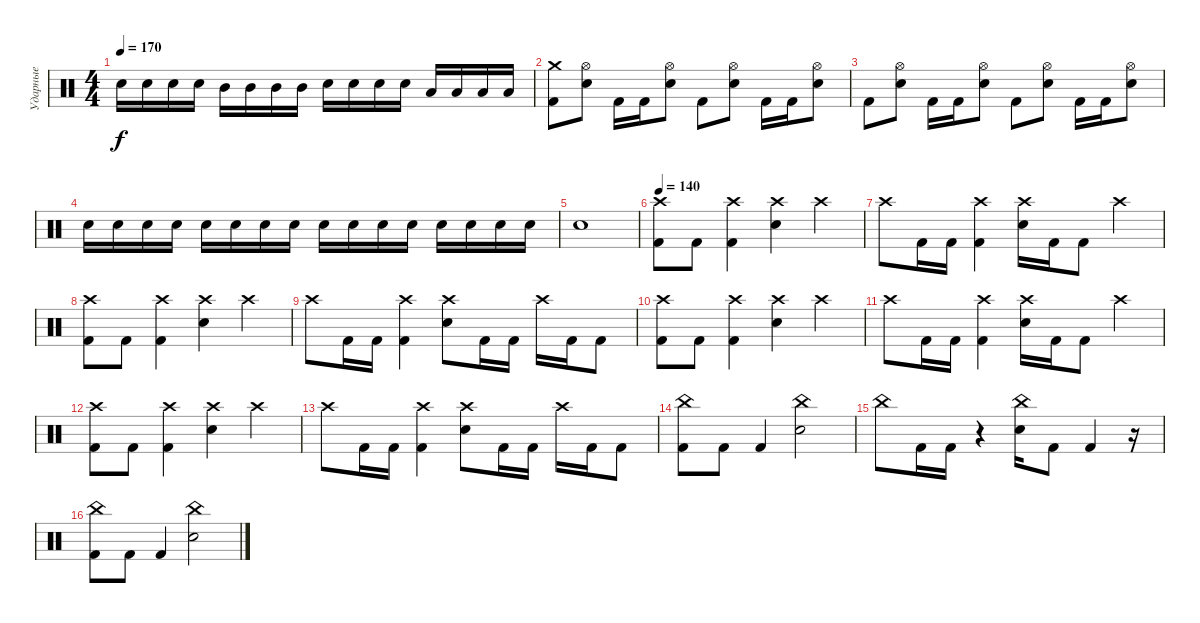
\track ("Ударные" "Ударные") {instrument percussion}
\staff {score}
\articulation defaults
\ts (4 4)
\tempo 170
\clef neutral
\ks c "Electric Snare (hit)".16{dy f} "Electric Snare (hit)".16 "Electric Snare (hit)".16 "Electric Snare (hit)".16 "Mid Tom (hit)".16 "Mid Tom (hit)".16 "Mid Tom (hit)".16 "Mid Tom (hit)".16 "Electric Snare (hit)".16 "Electric Snare (hit)".16 "Electric Snare (hit)".16 "Electric Snare (hit)".16 "Low Tom (hit)".16 "Low Tom (hit)".16 "Low Tom (hit)".16 "Low Tom (hit)".16
|
("Crash medium (hit)" "Kick (hit) 2").8 ("Hi-Hat (open)" "Electric Snare (hit)").8 "Kick (hit) 2".16 "Kick (hit) 2".16 ("Hi-Hat (open)" "Electric Snare (hit)").8 "Kick (hit) 2".8 ("Hi-Hat (open)" "Electric Snare (hit)").8 "Kick (hit) 2".16 "Kick (hit) 2".16 ("Hi-Hat (open)" "Electric Snare (hit)").8 |
"Kick (hit) 2".8 ("Hi-Hat (open)" "Electric Snare (hit)").8 "Kick (hit) 2".16 "Kick (hit) 2".16 ("Hi-Hat (open)" "Electric Snare (hit)").8 "Kick (hit) 2".8 ("Hi-Hat (open)" "Electric Snare (hit)").8 "Kick (hit) 2".16 "Kick (hit) 2".16 ("Hi-Hat (open)" "Electric Snare (hit)").8 |
"Electric Snare (hit)".16 "Electric Snare (hit)".16 "Electric Snare (hit)".16 "Electric Snare (hit)".16 "Electric Snare (hit)".16 "Electric Snare (hit)".16 "Electric Snare (hit)".16 "Electric Snare (hit)".16 "Electric Snare (hit)".16 "Electric Snare (hit)".16 "Electric Snare (hit)".16 "Electric Snare (hit)".16 "Electric Snare (hit)".16 "Electric Snare (hit)".16 "Electric Snare (hit)".16 "Electric Snare (hit)".16 |
"Snare (hit) 2".1 |
\tempo 140
("Crash high (hit)" "Kick (hit) 2").8 "Kick (hit) 2".8 ("Crash high (hit)" "Kick (hit) 2").4 ("Crash high (hit)" "Electric Snare (hit)").4 "Crash high (hit)".4 |
"Crash high (hit)".8 "Kick (hit) 2".16 "Kick (hit) 2".16 ("Crash high (hit)" "Kick (hit) 2").4 ("Crash high (hit)" "Electric Snare (hit)").16 "Kick (hit) 2".16 "Kick (hit) 2".8 "Crash high (hit)".4 |
("Crash high (hit)" "Kick (hit) 2").8 "Kick (hit) 2".8 ("Crash high (hit)" "Kick (hit) 2").4 ("Crash high (hit)" "Electric Snare (hit)").4 "Crash high (hit)".4 |
"Crash high (hit)".8 "Kick (hit) 2".16 "Kick (hit) 2".16 ("Crash high (hit)" "Kick (hit) 2").4 ("Crash high (hit)" "Electric Snare (hit)").8 "Kick (hit) 2".16 "Kick (hit) 2".16 "Crash high (hit)".16 "Kick (hit) 2".16 "Kick (hit) 2".8 |
("Crash high (hit)" "Kick (hit) 2").8 "Kick (hit) 2".8 ("Crash high (hit)" "Kick (hit) 2").4 ("Crash high (hit)" "Electric Snare (hit)").4 "Crash high (hit)".4 |
"Crash high (hit)".8 "Kick (hit) 2".16 "Kick (hit) 2".16 ("Crash high (hit)" "Kick (hit) 2").4 ("Crash high (hit)" "Electric Snare (hit)").16 "Kick (hit) 2".16 "Kick (hit) 2".8 "Crash high (hit)".4 |
("Crash high (hit)" "Kick (hit) 2").8 "Kick (hit) 2".8 ("Crash high (hit)" "Kick (hit) 2").4 ("Crash high (hit)" "Electric Snare (hit)").4 "Crash high (hit)".4 |
"Crash high (hit)".8 "Kick (hit) 2".16 "Kick (hit) 2".16 ("Crash high (hit)" "Kick (hit) 2").4 ("Crash high (hit)" "Electric Snare (hit)").8 "Kick (hit) 2".16 "Kick (hit) 2".16 "Crash high (hit)".16 "Kick (hit) 2".16 "Kick (hit) 2".8 |
("China (hit)" "Kick (hit) 2").8 "Kick (hit) 2".8 "Kick (hit) 2".4 ("China (hit)" "Electric Snare (hit)").2 |
"China (hit)".8 "Kick (hit) 2".16 "Kick (hit) 2".16 r.4 ("China (hit)" "Electric Snare (hit)").16 "Kick (hit) 2".8 "Kick (hit) 2".4 r.16 |
("China (hit)" "Kick (hit) 2").8 "Kick (hit) 2".8 "Kick (hit) 2".4 ("China (hit)" "Electric Snare (hit)").2
